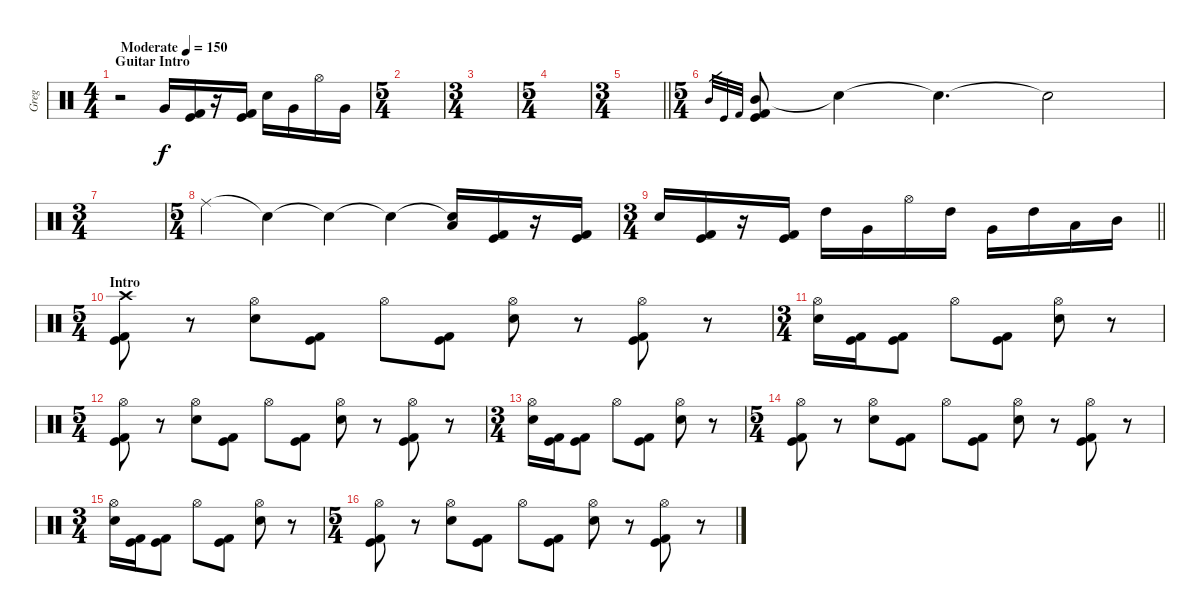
\track ("Greg" "Greg") {instrument percussion}
\staff {score}
\articulation defaults
\ts (4 4)
\section ("" "Guitar Intro")
\tempo (150 "Moderate")
\clef neutral
\ks c
r.2{dy f} "Very Low Tom (hit)".16 ("Kick (hit)" "Kick (hit) 2").16 r.16 ("Kick (hit)" "Kick (hit) 2").16 "Snare (hit) 2".16 "Very Low Tom (hit)".16 "Hi-Hat (open)".16 "Very Low Tom (hit)".16 |
\ts (5 4)
|
\ts (3 4)
|
\ts (5 4)
|
\ts (3 4)
\barLineRight lightlight
|
\ts (5 4)
"Mid Tom (hit)".32{gr} "Kick (hit)".32{gr} "Kick (hit) 2".32{gr} ("Mid Tom (hit)" "Kick (hit)" "Kick (hit) 2").8 "Snare (hit)"{t}.4 "Snare (hit)"{t}.4{d} "Snare (hit)"{t}.2 |
\ts (3 4)
|
\ts (5 4)
"Ride (middle)".4 "Snare (hit)"{t}.4 "Snare (hit)"{t}.4 "Snare (hit)"{t}.4 ("Snare (hit)"{t} "Low Tom (hit)").16 ("Kick (hit)" "Kick (hit) 2").16 r.16 ("Kick (hit)" "Kick (hit) 2").16 |
\ts (3 4)
\barLineRight lightlight "Snare (hit) 2".16
("Kick (hit)" "Kick (hit) 2").16 r.16 ("Kick (hit)" "Kick (hit) 2").16 "High Tom (hit)".16 "Very Low Tom (hit)".16 "Hi-Hat (open)".16 "High Tom (hit)".16 "Very Low Tom (hit)".16 "High Tom (hit)".16 "Low Tom (hit)".16 "Mid Tom (hit)".16 |
\ts (5 4)
\section ("" "Intro")
("Crash high (hit)" "Kick (hit)" "Kick (hit) 2").8 r.8 ("Hi-Hat (open)" "Snare (hit) 2").8 ("Kick (hit)" "Kick (hit) 2").8 "Hi-Hat (open)".8 ("Kick (hit)" "Kick (hit) 2").8 ("Hi-Hat (open)" "Snare (hit) 2").8 r.8 ("Hi-Hat (open)" "Kick (hit)" "Kick (hit) 2").8 r.8 |
\ts (3 4)
("Hi-Hat (open)" "Snare (hit) 2").16 ("Kick (hit)" "Kick (hit) 2").16 ("Kick (hit)" "Kick (hit) 2").8 "Hi-Hat (open)".8 ("Kick (hit)" "Kick (hit) 2").8 ("Hi-Hat (open)" "Snare (hit) 2").8 r.8 |
\ts (5 4)
("Hi-Hat (open)" "Kick (hit)" "Kick (hit) 2").8 r.8 ("Hi-Hat (open)" "Snare (hit) 2").8 ("Kick (hit)" "Kick (hit) 2").8 "Hi-Hat (open)".8 ("Kick (hit)" "Kick (hit) 2").8 ("Hi-Hat (open)" "Snare (hit) 2").8 r.8 ("Hi-Hat (open)" "Kick (hit)" "Kick (hit) 2").8 r.8 |
\ts (3 4)
("Hi-Hat (open)" "Snare (hit) 2").16 ("Kick (hit)" "Kick (hit) 2").16 ("Kick (hit)" "Kick (hit) 2").8 "Hi-Hat (open)".8 ("Kick (hit)" "Kick (hit) 2").8 ("Hi-Hat (open)" "Snare (hit) 2").8 r.8 |
\ts (5 4)
("Hi-Hat (open)" "Kick (hit)" "Kick (hit) 2").8 r.8 ("Hi-Hat (open)" "Snare (hit) 2").8 ("Kick (hit)" "Kick (hit) 2").8 "Hi-Hat (open)".8 ("Kick (hit)" "Kick (hit) 2").8 ("Hi-Hat (open)" "Snare (hit) 2").8 r.8 ("Hi-Hat (open)" "Kick (hit)" "Kick (hit) 2").8 r.8 |
\ts (3 4)
("Hi-Hat (open)" "Snare (hit) 2").16 ("Kick (hit)" "Kick (hit) 2").16 ("Kick (hit)" "Kick (hit) 2").8 "Hi-Hat (open)".8 ("Kick (hit)" "Kick (hit) 2").8 ("Hi-Hat (open)" "Snare (hit) 2").8 r.8 |
\ts (5 4)
("Hi-Hat (open)" "Kick (hit)" "Kick (hit) 2").8 r.8 ("Hi-Hat (open)" "Snare (hit) 2").8 ("Kick (hit)" "Kick (hit) 2").8 "Hi-Hat (open)".8 ("Kick (hit)" "Kick (hit) 2").8 ("Hi-Hat (open)" "Snare (hit) 2").8 r.8 ("Hi-Hat (open)" "Kick (hit)" "Kick (hit) 2").8 r.8
